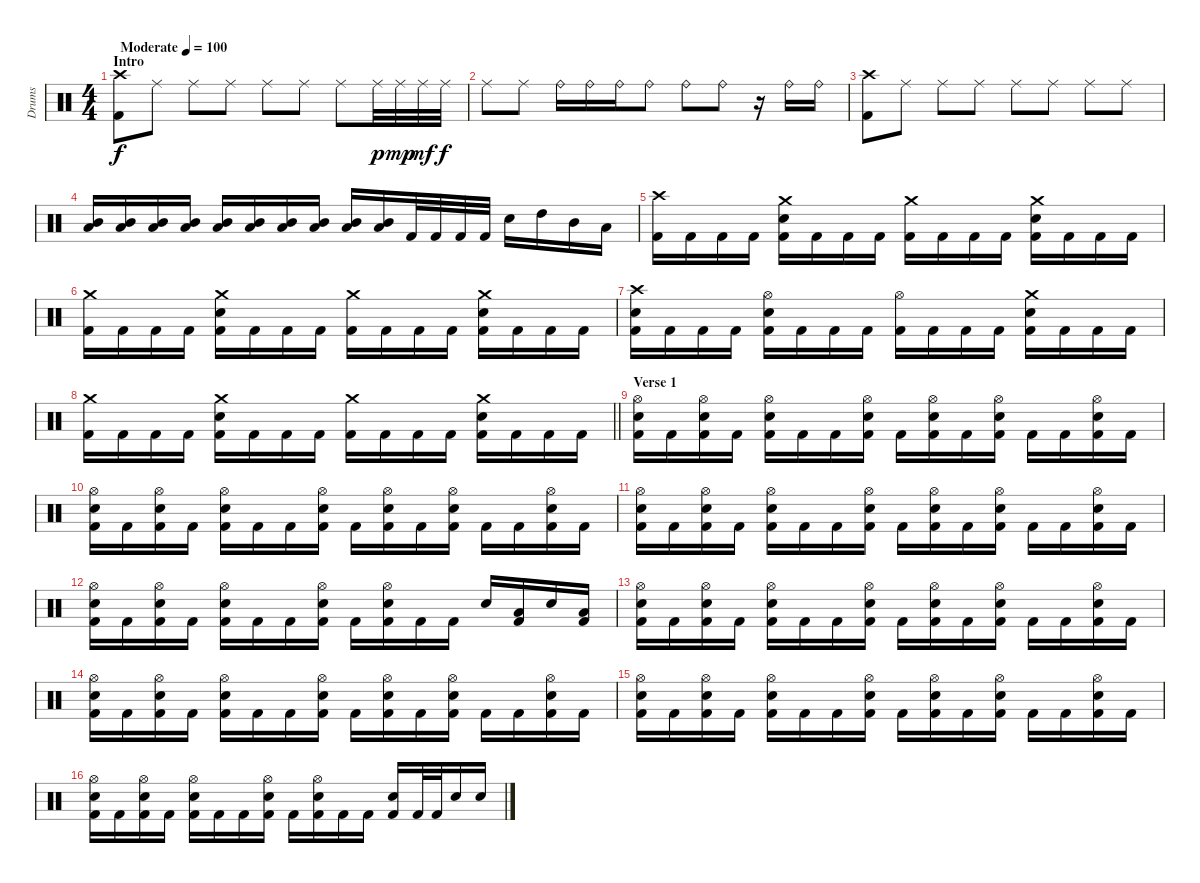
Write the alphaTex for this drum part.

\track ("Drums" "Drums") {instrument percussion}
\staff {score}
\articulation defaults
\ts (4 4)
\section ("" "Intro")
\tempo (100 "Moderate")
\clef neutral
\ks c
("Crash high (hit)" "Kick (hit) 2").8{dy f} "Ride (middle)".8 "Ride (middle)".8 "Ride (middle)".8 "Ride (middle)".8 "Ride (middle)".8 "Ride (middle)".8 "Ride (middle)".32{dy p} "Ride (middle)".32{dy mp} "Ride (middle)".32{dy mf} "Ride (middle)".32{dy f} |
"Ride (middle)".8 "Ride (middle)".8 "Ride (bell)".16 "Ride (bell)".16 "Ride (bell)".16 "Ride (bell)".8 "Ride (bell)".8 "Ride (bell)".8 r.16 "Ride (bell)".16 "Ride (bell)".16 |
("Crash high (hit)" "Kick (hit) 2").8 "Ride (middle)".8 "Ride (middle)".8 "Ride (middle)".8 "Ride (middle)".8 "Ride (middle)".8 "Ride (middle)".8 "Ride (middle)".8 |
("Low Tom (hit)" "Mid Tom (hit)").16 ("Low Tom (hit)" "Mid Tom (hit)").16 ("Low Tom (hit)" "Mid Tom (hit)").16 ("Low Tom (hit)" "Mid Tom (hit)").16 ("Low Tom (hit)" "Mid Tom (hit)").16 ("Low Tom (hit)" "Mid Tom (hit)").16 ("Low Tom (hit)" "Mid Tom (hit)").16 ("Low Tom (hit)" "Mid Tom (hit)").16 ("Low Tom (hit)" "Mid Tom (hit)").16 ("Low Tom (hit)" "Mid Tom (hit)").16 "Kick (hit) 2".32 "Kick (hit) 2".32 "Kick (hit) 2".32 "Kick (hit) 2".32 "Electric Snare (hit)".16 "High Tom (hit)".16 "Mid Tom (hit)".16 "Low Tom (hit)".16 |
("Crash high (hit)" "Kick (hit) 2").16 "Kick (hit) 2".16 "Kick (hit) 2".16 "Kick (hit) 2".16 ("Crash medium (hit)" "Electric Snare (hit)" "Kick (hit) 2").16 "Kick (hit) 2".16 "Kick (hit) 2".16 "Kick (hit) 2".16 ("Crash medium (hit)" "Kick (hit) 2").16 "Kick (hit) 2".16 "Kick (hit) 2".16 "Kick (hit) 2".16 ("Crash medium (hit)" "Electric Snare (hit)" "Kick (hit) 2").16 "Kick (hit) 2".16 "Kick (hit) 2".16 "Kick (hit) 2".16 |
("Crash medium (hit)" "Kick (hit) 2").16 "Kick (hit) 2".16 "Kick (hit) 2".16 "Kick (hit) 2".16 ("Crash medium (hit)" "Electric Snare (hit)" "Kick (hit) 2").16 "Kick (hit) 2".16 "Kick (hit) 2".16 "Kick (hit) 2".16 ("Crash medium (hit)" "Kick (hit) 2").16 "Kick (hit) 2".16 "Kick (hit) 2".16 "Kick (hit) 2".16 ("Crash medium (hit)" "Electric Snare (hit)" "Kick (hit) 2").16 "Kick (hit) 2".16 "Kick (hit) 2".16 "Kick (hit) 2".16 |
("Crash high (hit)" "Electric Snare (hit)" "Kick (hit) 2").16 "Kick (hit) 2".16 "Kick (hit) 2".16 "Kick (hit) 2".16 ("Hi-Hat (open)" "Electric Snare (hit)" "Kick (hit) 2").16 "Kick (hit) 2".16 "Kick (hit) 2".16 "Kick (hit) 2".16 ("Hi-Hat (open)" "Kick (hit) 2").16 "Kick (hit) 2".16 "Kick (hit) 2".16 "Kick (hit) 2".16 ("Crash medium (hit)" "Electric Snare (hit)" "Kick (hit) 2").16 "Kick (hit) 2".16 "Kick (hit) 2".16 "Kick (hit) 2".16 |
\barLineRight lightlight
("Crash medium (hit)" "Kick (hit) 2").16 "Kick (hit) 2".16 "Kick (hit) 2".16 "Kick (hit) 2".16 ("Crash medium (hit)" "Electric Snare (hit)" "Kick (hit) 2").16 "Kick (hit) 2".16 "Kick (hit) 2".16 "Kick (hit) 2".16 ("Crash medium (hit)" "Kick (hit) 2").16 "Kick (hit) 2".16 "Kick (hit) 2".16 "Kick (hit) 2".16 ("Crash medium (hit)" "Electric Snare (hit)" "Kick (hit) 2").16 "Kick (hit) 2".16 "Kick (hit) 2".16 "Kick (hit) 2".16 |
\section ("" "Verse 1")
("Hi-Hat (open)" "Electric Snare (hit)" "Kick (hit) 2").16 "Kick (hit) 2".16 ("Hi-Hat (open)" "Electric Snare (hit)" "Kick (hit) 2").16 "Kick (hit) 2".16 ("Hi-Hat (open)" "Electric Snare (hit)" "Kick (hit) 2").16 "Kick (hit) 2".16 "Kick (hit) 2".16 ("Hi-Hat (open)" "Electric Snare (hit)" "Kick (hit) 2").16 "Kick (hit) 2".16 ("Hi-Hat (open)" "Electric Snare (hit)" "Kick (hit) 2").16 "Kick (hit) 2".16 ("Hi-Hat (open)" "Electric Snare (hit)" "Kick (hit) 2").16 "Kick (hit) 2".16 "Kick (hit) 2".16 ("Hi-Hat (open)" "Electric Snare (hit)" "Kick (hit) 2").16 "Kick (hit) 2".16 |
("Hi-Hat (open)" "Electric Snare (hit)" "Kick (hit) 2").16 "Kick (hit) 2".16 ("Hi-Hat (open)" "Electric Snare (hit)" "Kick (hit) 2").16 "Kick (hit) 2".16 ("Hi-Hat (open)" "Electric Snare (hit)" "Kick (hit) 2").16 "Kick (hit) 2".16 "Kick (hit) 2".16 ("Hi-Hat (open)" "Electric Snare (hit)" "Kick (hit) 2").16 "Kick (hit) 2".16 ("Hi-Hat (open)" "Electric Snare (hit)" "Kick (hit) 2").16 "Kick (hit) 2".16 ("Hi-Hat (open)" "Electric Snare (hit)" "Kick (hit) 2").16 "Kick (hit) 2".16 "Kick (hit) 2".16 ("Hi-Hat (open)" "Electric Snare (hit)" "Kick (hit) 2").16 "Kick (hit) 2".16 |
("Hi-Hat (open)" "Electric Snare (hit)" "Kick (hit) 2").16 "Kick (hit) 2".16 ("Hi-Hat (open)" "Electric Snare (hit)" "Kick (hit) 2").16 "Kick (hit) 2".16 ("Hi-Hat (open)" "Electric Snare (hit)" "Kick (hit) 2").16 "Kick (hit) 2".16 "Kick (hit) 2".16 ("Hi-Hat (open)" "Electric Snare (hit)" "Kick (hit) 2").16 "Kick (hit) 2".16 ("Hi-Hat (open)" "Electric Snare (hit)" "Kick (hit) 2").16 "Kick (hit) 2".16 ("Hi-Hat (open)" "Electric Snare (hit)" "Kick (hit) 2").16 "Kick (hit) 2".16 "Kick (hit) 2".16 ("Hi-Hat (open)" "Electric Snare (hit)" "Kick (hit) 2").16 "Kick (hit) 2".16 |
("Hi-Hat (open)" "Electric Snare (hit)" "Kick (hit) 2").16 "Kick (hit) 2".16 ("Hi-Hat (open)" "Electric Snare (hit)" "Kick (hit) 2").16 "Kick (hit) 2".16 ("Hi-Hat (open)" "Electric Snare (hit)" "Kick (hit) 2").16 "Kick (hit) 2".16 "Kick (hit) 2".16 ("Hi-Hat (open)" "Electric Snare (hit)" "Kick (hit) 2").16 "Kick (hit) 2".16 ("Hi-Hat (open)" "Electric Snare (hit)" "Kick (hit) 2").16 "Kick (hit) 2".16 "Kick (hit) 2".16 "Electric Snare (hit)".16 ("Low Tom (hit)" "Kick (hit) 2").16 "Electric Snare (hit)".16 ("Low Tom (hit)" "Kick (hit) 2").16 |
("Hi-Hat (open)" "Electric Snare (hit)" "Kick (hit) 2").16 "Kick (hit) 2".16 ("Hi-Hat (open)" "Electric Snare (hit)" "Kick (hit) 2").16 "Kick (hit) 2".16 ("Hi-Hat (open)" "Electric Snare (hit)" "Kick (hit) 2").16 "Kick (hit) 2".16 "Kick (hit) 2".16 ("Hi-Hat (open)" "Electric Snare (hit)" "Kick (hit) 2").16 "Kick (hit) 2".16 ("Hi-Hat (open)" "Electric Snare (hit)" "Kick (hit) 2").16 "Kick (hit) 2".16 ("Hi-Hat (open)" "Electric Snare (hit)" "Kick (hit) 2").16 "Kick (hit) 2".16 "Kick (hit) 2".16 ("Hi-Hat (open)" "Electric Snare (hit)" "Kick (hit) 2").16 "Kick (hit) 2".16 |
("Hi-Hat (open)" "Electric Snare (hit)" "Kick (hit) 2").16 "Kick (hit) 2".16 ("Hi-Hat (open)" "Electric Snare (hit)" "Kick (hit) 2").16 "Kick (hit) 2".16 ("Hi-Hat (open)" "Electric Snare (hit)" "Kick (hit) 2").16 "Kick (hit) 2".16 "Kick (hit) 2".16 ("Hi-Hat (open)" "Electric Snare (hit)" "Kick (hit) 2").16 "Kick (hit) 2".16 ("Hi-Hat (open)" "Electric Snare (hit)" "Kick (hit) 2").16 "Kick (hit) 2".16 ("Hi-Hat (open)" "Electric Snare (hit)" "Kick (hit) 2").16 "Kick (hit) 2".16 "Kick (hit) 2".16 ("Hi-Hat (open)" "Electric Snare (hit)" "Kick (hit) 2").16 "Kick (hit) 2".16 |
("Hi-Hat (open)" "Electric Snare (hit)" "Kick (hit) 2").16 "Kick (hit) 2".16 ("Hi-Hat (open)" "Electric Snare (hit)" "Kick (hit) 2").16 "Kick (hit) 2".16 ("Hi-Hat (open)" "Electric Snare (hit)" "Kick (hit) 2").16 "Kick (hit) 2".16 "Kick (hit) 2".16 ("Hi-Hat (open)" "Electric Snare (hit)" "Kick (hit) 2").16 "Kick (hit) 2".16 ("Hi-Hat (open)" "Electric Snare (hit)" "Kick (hit) 2").16 "Kick (hit) 2".16 ("Hi-Hat (open)" "Electric Snare (hit)" "Kick (hit) 2").16 "Kick (hit) 2".16 "Kick (hit) 2".16 ("Hi-Hat (open)" "Electric Snare (hit)" "Kick (hit) 2").16 "Kick (hit) 2".16 |
("Hi-Hat (open)" "Electric Snare (hit)" "Kick (hit) 2").16 "Kick (hit) 2".16 ("Hi-Hat (open)" "Electric Snare (hit)" "Kick (hit) 2").16 "Kick (hit) 2".16 ("Hi-Hat (open)" "Electric Snare (hit)" "Kick (hit) 2").16 "Kick (hit) 2".16 "Kick (hit) 2".16 ("Hi-Hat (open)" "Electric Snare (hit)" "Kick (hit) 2").16 "Kick (hit) 2".16 ("Hi-Hat (open)" "Electric Snare (hit)" "Kick (hit) 2").16 "Kick (hit) 2".16 "Kick (hit) 2".16 ("Electric Snare (hit)" "Kick (hit) 2").16 "Kick (hit) 2".32 "Kick (hit) 2".32 "Electric Snare (hit)".16 "Electric Snare (hit)".16
